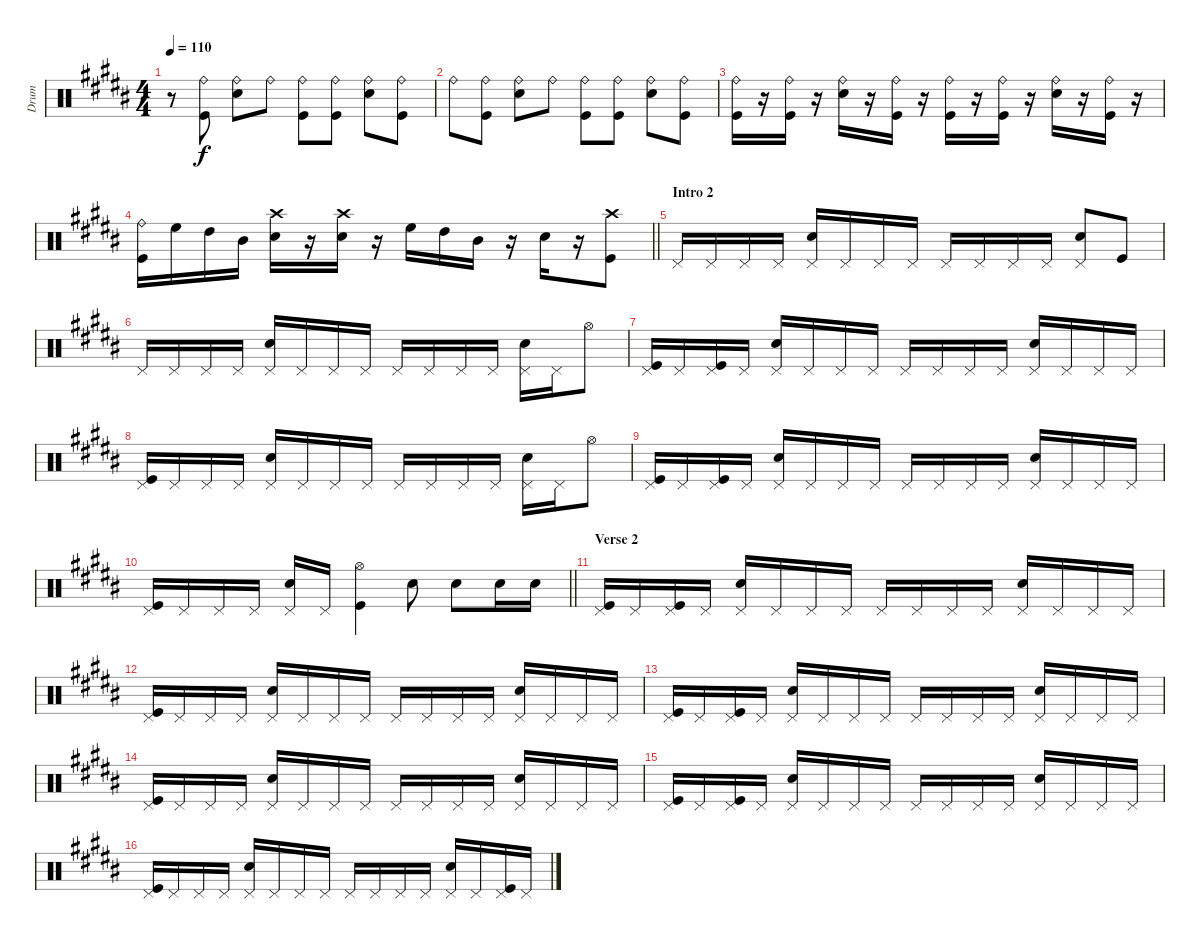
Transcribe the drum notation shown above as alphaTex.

\track ("Drum" "Drum") {instrument percussion}
\staff {score}
\articulation defaults
\ts (4 4)
\tempo 110
\clef neutral
\ks b
r.8{dy f} ("Kick (hit)" "Ride (bell)").8 ("Snare (hit) 2" "Ride (bell)").8 "Ride (bell)".8 ("Kick (hit)" "Ride (bell)").8 ("Kick (hit)" "Ride (bell)").8 ("Snare (hit) 2" "Ride (bell)").8 ("Kick (hit)" "Ride (bell)").8 |
\ks g#minor "Ride (bell)".8
("Kick (hit)" "Ride (bell)").8 ("Snare (hit) 2" "Ride (bell)").8 "Ride (bell)".8 ("Kick (hit)" "Ride (bell)").8 ("Kick (hit)" "Ride (bell)").8 ("Snare (hit) 2" "Ride (bell)").8 ("Kick (hit)" "Ride (bell)").8 |
("Kick (hit)" "Ride (bell)").16 r.16 ("Kick (hit)" "Ride (bell)").16 r.16 ("Snare (hit) 2" "Ride (bell)").16 r.16 ("Kick (hit)" "Ride (bell)").16 r.16 ("Kick (hit)" "Ride (bell)").16 r.16 ("Kick (hit)" "Ride (bell)").16 r.16 ("Snare (hit) 2" "Ride (bell)").16 r.16 ("Kick (hit)" "Ride (bell)").16 r.16 |
\barLineRight lightlight
("Kick (hit)" "Ride (bell)").16 "High Floor Tom (hit)".16 "High Tom (hit)".16 "Mid Tom (hit)".16 ("Snare (hit) 2" "Crash high (hit)").16 r.16 ("Snare (hit) 2" "Crash high (hit)").16 r.16 "High Floor Tom (hit)".16 "High Tom (hit)".16 "Mid Tom (hit)".16 r.16 "Snare (hit) 2".16 r.16 ("Kick (hit)" "Crash high (hit)").8 |
\section ("" "Intro 2")
\ks b "Pedal Hi-Hat (hit)".16 "Pedal Hi-Hat (hit)".16 "Pedal Hi-Hat (hit)".16 "Pedal Hi-Hat (hit)".16
("Pedal Hi-Hat (hit)" "Snare (hit) 2").16 "Pedal Hi-Hat (hit)".16 "Pedal Hi-Hat (hit)".16 "Pedal Hi-Hat (hit)".16 "Pedal Hi-Hat (hit)".16 "Pedal Hi-Hat (hit)".16 "Pedal Hi-Hat (hit)".16 "Pedal Hi-Hat (hit)".16 ("Pedal Hi-Hat (hit)" "Snare (hit) 2").8 "Kick (hit)".8 |
\ks g#minor "Pedal Hi-Hat (hit)".16 "Pedal Hi-Hat (hit)".16 "Pedal Hi-Hat (hit)".16 "Pedal Hi-Hat (hit)".16
("Pedal Hi-Hat (hit)" "Snare (hit) 2").16 "Pedal Hi-Hat (hit)".16 "Pedal Hi-Hat (hit)".16 "Pedal Hi-Hat (hit)".16 "Pedal Hi-Hat (hit)".16 "Pedal Hi-Hat (hit)".16 "Pedal Hi-Hat (hit)".16 "Pedal Hi-Hat (hit)".16 ("Pedal Hi-Hat (hit)" "Snare (hit) 2").16 "Pedal Hi-Hat (hit)".16 "Hi-Hat (open)".8 |
("Pedal Hi-Hat (hit)" "Kick (hit)").16 "Pedal Hi-Hat (hit)".16 ("Pedal Hi-Hat (hit)" "Kick (hit)").16 "Pedal Hi-Hat (hit)".16 ("Pedal Hi-Hat (hit)" "Snare (hit) 2").16 "Pedal Hi-Hat (hit)".16 "Pedal Hi-Hat (hit)".16 "Pedal Hi-Hat (hit)".16 "Pedal Hi-Hat (hit)".16 "Pedal Hi-Hat (hit)".16 "Pedal Hi-Hat (hit)".16 "Pedal Hi-Hat (hit)".16 ("Pedal Hi-Hat (hit)" "Snare (hit) 2").16 "Pedal Hi-Hat (hit)".16 "Pedal Hi-Hat (hit)".16 "Pedal Hi-Hat (hit)".16 |
("Pedal Hi-Hat (hit)" "Kick (hit)").16 "Pedal Hi-Hat (hit)".16 "Pedal Hi-Hat (hit)".16 "Pedal Hi-Hat (hit)".16 ("Pedal Hi-Hat (hit)" "Snare (hit) 2").16 "Pedal Hi-Hat (hit)".16 "Pedal Hi-Hat (hit)".16 "Pedal Hi-Hat (hit)".16 "Pedal Hi-Hat (hit)".16 "Pedal Hi-Hat (hit)".16 "Pedal Hi-Hat (hit)".16 "Pedal Hi-Hat (hit)".16 ("Pedal Hi-Hat (hit)" "Snare (hit) 2").16 "Pedal Hi-Hat (hit)".16 "Hi-Hat (open)".8 |
\ks b
("Pedal Hi-Hat (hit)" "Kick (hit)").16 "Pedal Hi-Hat (hit)".16 ("Pedal Hi-Hat (hit)" "Kick (hit)").16 "Pedal Hi-Hat (hit)".16 ("Pedal Hi-Hat (hit)" "Snare (hit) 2").16 "Pedal Hi-Hat (hit)".16 "Pedal Hi-Hat (hit)".16 "Pedal Hi-Hat (hit)".16 "Pedal Hi-Hat (hit)".16 "Pedal Hi-Hat (hit)".16 "Pedal Hi-Hat (hit)".16 "Pedal Hi-Hat (hit)".16 ("Pedal Hi-Hat (hit)" "Snare (hit) 2").16 "Pedal Hi-Hat (hit)".16 "Pedal Hi-Hat (hit)".16 "Pedal Hi-Hat (hit)".16 |
\barLineRight lightlight
\ks g#minor
("Pedal Hi-Hat (hit)" "Kick (hit)").16 "Pedal Hi-Hat (hit)".16 "Pedal Hi-Hat (hit)".16 "Pedal Hi-Hat (hit)".16 ("Pedal Hi-Hat (hit)" "Snare (hit) 2").16 "Pedal Hi-Hat (hit)".16 ("Hi-Hat (open)" "Kick (hit)").4 "Snare (hit) 2".8 "Snare (hit) 2".8 "Snare (hit) 2".16 "Snare (hit) 2".16 |
\section ("" "Verse 2")
\ks b
("Pedal Hi-Hat (hit)" "Kick (hit)").16 "Pedal Hi-Hat (hit)".16 ("Pedal Hi-Hat (hit)" "Kick (hit)").16 "Pedal Hi-Hat (hit)".16 ("Pedal Hi-Hat (hit)" "Snare (hit) 2").16 "Pedal Hi-Hat (hit)".16 "Pedal Hi-Hat (hit)".16 "Pedal Hi-Hat (hit)".16 "Pedal Hi-Hat (hit)".16 "Pedal Hi-Hat (hit)".16 "Pedal Hi-Hat (hit)".16 "Pedal Hi-Hat (hit)".16 ("Pedal Hi-Hat (hit)" "Snare (hit) 2").16 "Pedal Hi-Hat (hit)".16 "Pedal Hi-Hat (hit)".16 "Pedal Hi-Hat (hit)".16 |
\ks g#minor
("Pedal Hi-Hat (hit)" "Kick (hit)").16 "Pedal Hi-Hat (hit)".16 "Pedal Hi-Hat (hit)".16 "Pedal Hi-Hat (hit)".16 ("Pedal Hi-Hat (hit)" "Snare (hit) 2").16 "Pedal Hi-Hat (hit)".16 "Pedal Hi-Hat (hit)".16 "Pedal Hi-Hat (hit)".16 "Pedal Hi-Hat (hit)".16 "Pedal Hi-Hat (hit)".16 "Pedal Hi-Hat (hit)".16 "Pedal Hi-Hat (hit)".16 ("Pedal Hi-Hat (hit)" "Snare (hit) 2").16 "Pedal Hi-Hat (hit)".16 "Pedal Hi-Hat (hit)".16 "Pedal Hi-Hat (hit)".16 |
("Pedal Hi-Hat (hit)" "Kick (hit)").16 "Pedal Hi-Hat (hit)".16 ("Pedal Hi-Hat (hit)" "Kick (hit)").16 "Pedal Hi-Hat (hit)".16 ("Pedal Hi-Hat (hit)" "Snare (hit) 2").16 "Pedal Hi-Hat (hit)".16 "Pedal Hi-Hat (hit)".16 "Pedal Hi-Hat (hit)".16 "Pedal Hi-Hat (hit)".16 "Pedal Hi-Hat (hit)".16 "Pedal Hi-Hat (hit)".16 "Pedal Hi-Hat (hit)".16 ("Pedal Hi-Hat (hit)" "Snare (hit) 2").16 "Pedal Hi-Hat (hit)".16 "Pedal Hi-Hat (hit)".16 "Pedal Hi-Hat (hit)".16 |
("Pedal Hi-Hat (hit)" "Kick (hit)").16 "Pedal Hi-Hat (hit)".16 "Pedal Hi-Hat (hit)".16 "Pedal Hi-Hat (hit)".16 ("Pedal Hi-Hat (hit)" "Snare (hit) 2").16 "Pedal Hi-Hat (hit)".16 "Pedal Hi-Hat (hit)".16 "Pedal Hi-Hat (hit)".16 "Pedal Hi-Hat (hit)".16 "Pedal Hi-Hat (hit)".16 "Pedal Hi-Hat (hit)".16 "Pedal Hi-Hat (hit)".16 ("Pedal Hi-Hat (hit)" "Snare (hit) 2").16 "Pedal Hi-Hat (hit)".16 "Pedal Hi-Hat (hit)".16 "Pedal Hi-Hat (hit)".16 |
\ks b
("Pedal Hi-Hat (hit)" "Kick (hit)").16 "Pedal Hi-Hat (hit)".16 ("Pedal Hi-Hat (hit)" "Kick (hit)").16 "Pedal Hi-Hat (hit)".16 ("Pedal Hi-Hat (hit)" "Snare (hit) 2").16 "Pedal Hi-Hat (hit)".16 "Pedal Hi-Hat (hit)".16 "Pedal Hi-Hat (hit)".16 "Pedal Hi-Hat (hit)".16 "Pedal Hi-Hat (hit)".16 "Pedal Hi-Hat (hit)".16 "Pedal Hi-Hat (hit)".16 ("Pedal Hi-Hat (hit)" "Snare (hit) 2").16 "Pedal Hi-Hat (hit)".16 "Pedal Hi-Hat (hit)".16 "Pedal Hi-Hat (hit)".16 |
\ks g#minor
("Pedal Hi-Hat (hit)" "Kick (hit)").16 "Pedal Hi-Hat (hit)".16 "Pedal Hi-Hat (hit)".16 "Pedal Hi-Hat (hit)".16 ("Pedal Hi-Hat (hit)" "Snare (hit) 2").16 "Pedal Hi-Hat (hit)".16 "Pedal Hi-Hat (hit)".16 "Pedal Hi-Hat (hit)".16 "Pedal Hi-Hat (hit)".16 "Pedal Hi-Hat (hit)".16 "Pedal Hi-Hat (hit)".16 "Pedal Hi-Hat (hit)".16 ("Pedal Hi-Hat (hit)" "Snare (hit) 2").16 "Pedal Hi-Hat (hit)".16 ("Pedal Hi-Hat (hit)" "Kick (hit)").16 "Pedal Hi-Hat (hit)".16
